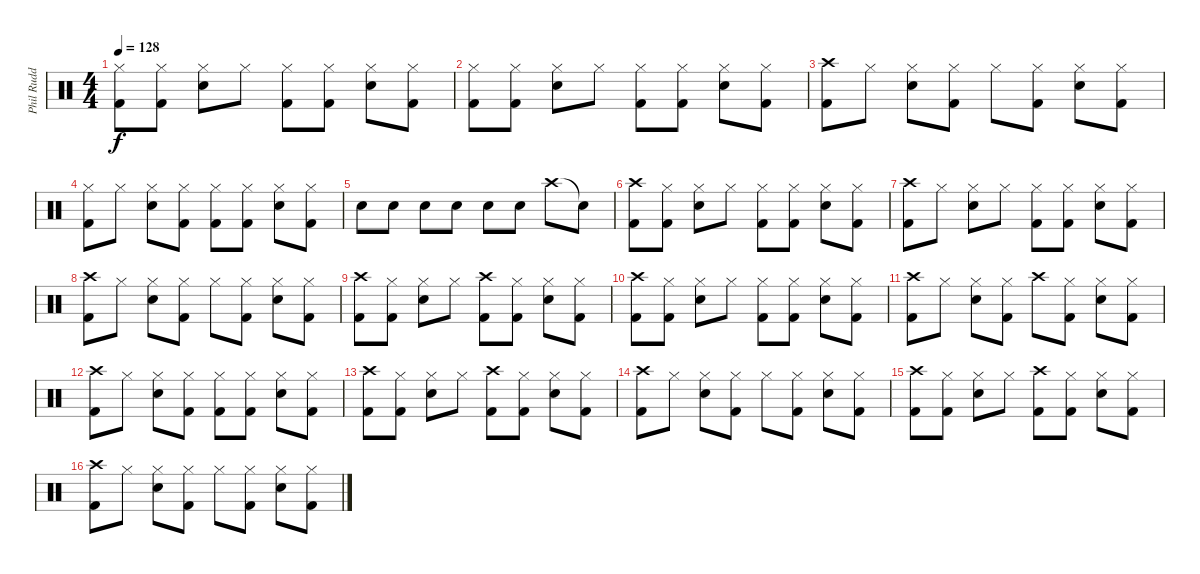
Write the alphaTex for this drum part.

\track ("Phil Rudd" "Phil Rudd") {instrument percussion}
\staff {score}
\articulation defaults
\ts (4 4)
\tempo 128
\clef neutral
\ks c
("Hi-Hat (closed)" "Kick (hit) 2").8{dy f} ("Hi-Hat (closed)" "Kick (hit) 2").8 ("Hi-Hat (closed)" "Snare (hit) 2").8 "Hi-Hat (closed)".8 ("Hi-Hat (closed)" "Kick (hit) 2").8 ("Hi-Hat (closed)" "Kick (hit) 2").8 ("Hi-Hat (closed)" "Snare (hit) 2").8 ("Hi-Hat (closed)" "Kick (hit) 2").8 |
("Hi-Hat (closed)" "Kick (hit) 2").8 ("Hi-Hat (closed)" "Kick (hit) 2").8 ("Hi-Hat (closed)" "Snare (hit) 2").8 "Hi-Hat (closed)".8 ("Hi-Hat (closed)" "Kick (hit) 2").8 ("Hi-Hat (closed)" "Kick (hit) 2").8 ("Hi-Hat (closed)" "Snare (hit) 2").8 ("Hi-Hat (closed)" "Kick (hit) 2").8 |
("Crash high (hit)" "Kick (hit) 2").8 "Hi-Hat (closed)".8 ("Hi-Hat (closed)" "Snare (hit) 2").8 ("Hi-Hat (closed)" "Kick (hit) 2").8 "Hi-Hat (closed)".8 ("Hi-Hat (closed)" "Kick (hit) 2").8 ("Hi-Hat (closed)" "Snare (hit) 2").8 ("Hi-Hat (closed)" "Kick (hit) 2").8 |
("Hi-Hat (closed)" "Kick (hit) 2").8 "Hi-Hat (closed)".8 ("Hi-Hat (closed)" "Snare (hit) 2").8 ("Hi-Hat (closed)" "Kick (hit) 2").8 ("Hi-Hat (closed)" "Kick (hit) 2").8 ("Hi-Hat (closed)" "Kick (hit) 2").8 ("Hi-Hat (closed)" "Snare (hit) 2").8 ("Hi-Hat (closed)" "Kick (hit) 2").8 |
"Snare (hit) 2".8 "Snare (hit) 2".8 "Snare (hit) 2".8 "Snare (hit) 2".8 "Snare (hit) 2".8 "Snare (hit) 2".8 "Crash high (hit)".8 "Snare (hit)"{t}.8 |
("Crash high (hit)" "Kick (hit) 2").8 ("Hi-Hat (closed)" "Kick (hit) 2").8 ("Hi-Hat (closed)" "Snare (hit) 2").8 "Hi-Hat (closed)".8 ("Hi-Hat (closed)" "Kick (hit) 2").8 ("Hi-Hat (closed)" "Kick (hit) 2").8 ("Hi-Hat (closed)" "Snare (hit) 2").8 ("Hi-Hat (closed)" "Kick (hit) 2").8 |
("Crash high (hit)" "Kick (hit) 2").8 "Hi-Hat (closed)".8 ("Hi-Hat (closed)" "Snare (hit) 2").8 "Hi-Hat (closed)".8 ("Hi-Hat (closed)" "Kick (hit) 2").8 ("Hi-Hat (closed)" "Kick (hit) 2").8 ("Hi-Hat (closed)" "Snare (hit) 2").8 ("Hi-Hat (closed)" "Kick (hit) 2").8 |
("Crash high (hit)" "Kick (hit) 2").8 "Hi-Hat (closed)".8 ("Hi-Hat (closed)" "Snare (hit) 2").8 ("Hi-Hat (closed)" "Kick (hit) 2").8 "Hi-Hat (closed)".8 ("Hi-Hat (closed)" "Kick (hit) 2").8 ("Hi-Hat (closed)" "Snare (hit) 2").8 ("Hi-Hat (closed)" "Kick (hit) 2").8 |
("Crash high (hit)" "Kick (hit) 2").8 ("Hi-Hat (closed)" "Kick (hit) 2").8 ("Hi-Hat (closed)" "Snare (hit) 2").8 "Hi-Hat (closed)".8 ("Crash high (hit)" "Kick (hit) 2").8 ("Hi-Hat (closed)" "Kick (hit) 2").8 ("Hi-Hat (closed)" "Snare (hit) 2").8 ("Hi-Hat (closed)" "Kick (hit) 2").8 |
("Crash high (hit)" "Kick (hit) 2").8 ("Hi-Hat (closed)" "Kick (hit) 2").8 ("Hi-Hat (closed)" "Snare (hit) 2").8 "Hi-Hat (closed)".8 ("Hi-Hat (closed)" "Kick (hit) 2").8 ("Hi-Hat (closed)" "Kick (hit) 2").8 ("Hi-Hat (closed)" "Snare (hit) 2").8 ("Hi-Hat (closed)" "Kick (hit) 2").8 |
("Crash high (hit)" "Kick (hit) 2").8 "Hi-Hat (closed)".8 ("Hi-Hat (closed)" "Snare (hit) 2").8 ("Hi-Hat (closed)" "Kick (hit) 2").8 "Crash high (hit)".8 ("Hi-Hat (closed)" "Kick (hit) 2").8 ("Hi-Hat (closed)" "Snare (hit) 2").8 ("Hi-Hat (closed)" "Kick (hit) 2").8 |
("Crash high (hit)" "Kick (hit) 2").8 "Hi-Hat (closed)".8 ("Hi-Hat (closed)" "Snare (hit) 2").8 ("Hi-Hat (closed)" "Kick (hit) 2").8 ("Hi-Hat (closed)" "Kick (hit) 2").8 ("Hi-Hat (closed)" "Kick (hit) 2").8 ("Hi-Hat (closed)" "Snare (hit) 2").8 ("Hi-Hat (closed)" "Kick (hit) 2").8 |
("Crash high (hit)" "Kick (hit) 2").8 ("Hi-Hat (closed)" "Kick (hit) 2").8 ("Hi-Hat (closed)" "Snare (hit) 2").8 "Hi-Hat (closed)".8 ("Crash high (hit)" "Kick (hit) 2").8 ("Hi-Hat (closed)" "Kick (hit) 2").8 ("Hi-Hat (closed)" "Snare (hit) 2").8 ("Hi-Hat (closed)" "Kick (hit) 2").8 |
("Crash high (hit)" "Kick (hit) 2").8 "Hi-Hat (closed)".8 ("Hi-Hat (closed)" "Snare (hit) 2").8 ("Hi-Hat (closed)" "Kick (hit) 2").8 "Hi-Hat (closed)".8 ("Hi-Hat (closed)" "Kick (hit) 2").8 ("Hi-Hat (closed)" "Snare (hit) 2").8 ("Hi-Hat (closed)" "Kick (hit) 2").8 |
("Crash high (hit)" "Kick (hit) 2").8 ("Hi-Hat (closed)" "Kick (hit) 2").8 ("Hi-Hat (closed)" "Snare (hit) 2").8 "Hi-Hat (closed)".8 ("Crash high (hit)" "Kick (hit) 2").8 ("Hi-Hat (closed)" "Kick (hit) 2").8 ("Hi-Hat (closed)" "Snare (hit) 2").8 ("Hi-Hat (closed)" "Kick (hit) 2").8 |
("Crash high (hit)" "Kick (hit) 2").8 "Hi-Hat (closed)".8 ("Hi-Hat (closed)" "Snare (hit) 2").8 ("Hi-Hat (closed)" "Kick (hit) 2").8 "Hi-Hat (closed)".8 ("Hi-Hat (closed)" "Kick (hit) 2").8 ("Hi-Hat (closed)" "Snare (hit) 2").8 ("Hi-Hat (closed)" "Kick (hit) 2").8
